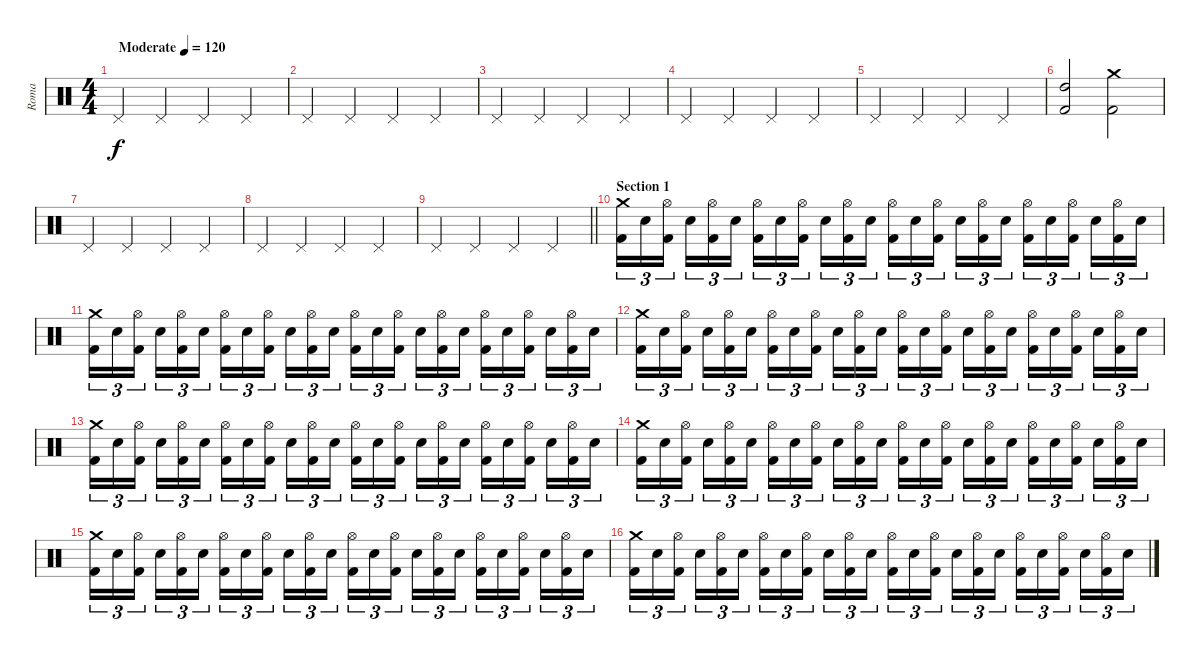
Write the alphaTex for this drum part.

\track ("Roma" "Roma") {instrument percussion}
\staff {score}
\articulation defaults
\ts (4 4)
\tempo (120 "Moderate")
\clef neutral
\ks c "Pedal Hi-Hat (hit)".4{dy f} "Pedal Hi-Hat (hit)".4 "Pedal Hi-Hat (hit)".4 "Pedal Hi-Hat (hit)".4
|
"Pedal Hi-Hat (hit)".4 "Pedal Hi-Hat (hit)".4 "Pedal Hi-Hat (hit)".4 "Pedal Hi-Hat (hit)".4 |
"Pedal Hi-Hat (hit)".4 "Pedal Hi-Hat (hit)".4 "Pedal Hi-Hat (hit)".4 "Pedal Hi-Hat (hit)".4 |
"Pedal Hi-Hat (hit)".4 "Pedal Hi-Hat (hit)".4 "Pedal Hi-Hat (hit)".4 "Pedal Hi-Hat (hit)".4 |
"Pedal Hi-Hat (hit)".4 "Pedal Hi-Hat (hit)".4 "Pedal Hi-Hat (hit)".4 "Pedal Hi-Hat (hit)".4 |
("High Tom (hit)" "Kick (hit) 2").2 ("Crash medium (hit)" "Kick (hit) 2").2 |
"Pedal Hi-Hat (hit)".4 "Pedal Hi-Hat (hit)".4 "Pedal Hi-Hat (hit)".4 "Pedal Hi-Hat (hit)".4 |
"Pedal Hi-Hat (hit)".4 "Pedal Hi-Hat (hit)".4 "Pedal Hi-Hat (hit)".4 "Pedal Hi-Hat (hit)".4 |
\barLineRight lightlight "Pedal Hi-Hat (hit)".4 "Pedal Hi-Hat (hit)".4 "Pedal Hi-Hat (hit)".4 "Pedal Hi-Hat (hit)".4
|
\section ("" "Section 1")
("Crash medium (hit)" "Kick (hit) 2").16{tu (3 2)} "Electric Snare (hit)".16{tu (3 2)} ("Hi-Hat (open)" "Kick (hit) 2").16{tu (3 2) beam splitsecondary} "Electric Snare (hit)".16{tu (3 2)} ("Hi-Hat (open)" "Kick (hit) 2").16{tu (3 2)} "Electric Snare (hit)".16{tu (3 2)} ("Hi-Hat (open)" "Kick (hit) 2").16{tu (3 2)} "Electric Snare (hit)".16{tu (3 2)} ("Hi-Hat (open)" "Kick (hit) 2").16{tu (3 2) beam splitsecondary} "Electric Snare (hit)".16{tu (3 2)} ("Hi-Hat (open)" "Kick (hit) 2").16{tu (3 2)} "Electric Snare (hit)".16{tu (3 2)} ("Hi-Hat (open)" "Kick (hit) 2").16{tu (3 2)} "Electric Snare (hit)".16{tu (3 2)} ("Hi-Hat (open)" "Kick (hit) 2").16{tu (3 2) beam splitsecondary} "Electric Snare (hit)".16{tu (3 2)} ("Hi-Hat (open)" "Kick (hit) 2").16{tu (3 2)} "Electric Snare (hit)".16{tu (3 2)} ("Hi-Hat (open)" "Kick (hit) 2").16{tu (3 2)} "Electric Snare (hit)".16{tu (3 2)} ("Hi-Hat (open)" "Kick (hit) 2").16{tu (3 2) beam splitsecondary} "Electric Snare (hit)".16{tu (3 2)} ("Hi-Hat (open)" "Kick (hit) 2").16{tu (3 2)} "Electric Snare (hit)".16{tu (3 2)} |
("Crash medium (hit)" "Kick (hit) 2").16{tu (3 2)} "Electric Snare (hit)".16{tu (3 2)} ("Hi-Hat (open)" "Kick (hit) 2").16{tu (3 2) beam splitsecondary} "Electric Snare (hit)".16{tu (3 2)} ("Hi-Hat (open)" "Kick (hit) 2").16{tu (3 2)} "Electric Snare (hit)".16{tu (3 2)} ("Hi-Hat (open)" "Kick (hit) 2").16{tu (3 2)} "Electric Snare (hit)".16{tu (3 2)} ("Hi-Hat (open)" "Kick (hit) 2").16{tu (3 2) beam splitsecondary} "Electric Snare (hit)".16{tu (3 2)} ("Hi-Hat (open)" "Kick (hit) 2").16{tu (3 2)} "Electric Snare (hit)".16{tu (3 2)} ("Hi-Hat (open)" "Kick (hit) 2").16{tu (3 2)} "Electric Snare (hit)".16{tu (3 2)} ("Hi-Hat (open)" "Kick (hit) 2").16{tu (3 2) beam splitsecondary} "Electric Snare (hit)".16{tu (3 2)} ("Hi-Hat (open)" "Kick (hit) 2").16{tu (3 2)} "Electric Snare (hit)".16{tu (3 2)} ("Hi-Hat (open)" "Kick (hit) 2").16{tu (3 2)} "Electric Snare (hit)".16{tu (3 2)} ("Hi-Hat (open)" "Kick (hit) 2").16{tu (3 2) beam splitsecondary} "Electric Snare (hit)".16{tu (3 2)} ("Hi-Hat (open)" "Kick (hit) 2").16{tu (3 2)} "Electric Snare (hit)".16{tu (3 2)} |
("Crash medium (hit)" "Kick (hit) 2").16{tu (3 2)} "Electric Snare (hit)".16{tu (3 2)} ("Hi-Hat (open)" "Kick (hit) 2").16{tu (3 2) beam splitsecondary} "Electric Snare (hit)".16{tu (3 2)} ("Hi-Hat (open)" "Kick (hit) 2").16{tu (3 2)} "Electric Snare (hit)".16{tu (3 2)} ("Hi-Hat (open)" "Kick (hit) 2").16{tu (3 2)} "Electric Snare (hit)".16{tu (3 2)} ("Hi-Hat (open)" "Kick (hit) 2").16{tu (3 2) beam splitsecondary} "Electric Snare (hit)".16{tu (3 2)} ("Hi-Hat (open)" "Kick (hit) 2").16{tu (3 2)} "Electric Snare (hit)".16{tu (3 2)} ("Hi-Hat (open)" "Kick (hit) 2").16{tu (3 2)} "Electric Snare (hit)".16{tu (3 2)} ("Hi-Hat (open)" "Kick (hit) 2").16{tu (3 2) beam splitsecondary} "Electric Snare (hit)".16{tu (3 2)} ("Hi-Hat (open)" "Kick (hit) 2").16{tu (3 2)} "Electric Snare (hit)".16{tu (3 2)} ("Hi-Hat (open)" "Kick (hit) 2").16{tu (3 2)} "Electric Snare (hit)".16{tu (3 2)} ("Hi-Hat (open)" "Kick (hit) 2").16{tu (3 2) beam splitsecondary} "Electric Snare (hit)".16{tu (3 2)} ("Hi-Hat (open)" "Kick (hit) 2").16{tu (3 2)} "Electric Snare (hit)".16{tu (3 2)} |
("Crash medium (hit)" "Kick (hit) 2").16{tu (3 2)} "Electric Snare (hit)".16{tu (3 2)} ("Hi-Hat (open)" "Kick (hit) 2").16{tu (3 2) beam splitsecondary} "Electric Snare (hit)".16{tu (3 2)} ("Hi-Hat (open)" "Kick (hit) 2").16{tu (3 2)} "Electric Snare (hit)".16{tu (3 2)} ("Hi-Hat (open)" "Kick (hit) 2").16{tu (3 2)} "Electric Snare (hit)".16{tu (3 2)} ("Hi-Hat (open)" "Kick (hit) 2").16{tu (3 2) beam splitsecondary} "Electric Snare (hit)".16{tu (3 2)} ("Hi-Hat (open)" "Kick (hit) 2").16{tu (3 2)} "Electric Snare (hit)".16{tu (3 2)} ("Hi-Hat (open)" "Kick (hit) 2").16{tu (3 2)} "Electric Snare (hit)".16{tu (3 2)} ("Hi-Hat (open)" "Kick (hit) 2").16{tu (3 2) beam splitsecondary} "Electric Snare (hit)".16{tu (3 2)} ("Hi-Hat (open)" "Kick (hit) 2").16{tu (3 2)} "Electric Snare (hit)".16{tu (3 2)} ("Hi-Hat (open)" "Kick (hit) 2").16{tu (3 2)} "Electric Snare (hit)".16{tu (3 2)} ("Hi-Hat (open)" "Kick (hit) 2").16{tu (3 2) beam splitsecondary} "Electric Snare (hit)".16{tu (3 2)} ("Hi-Hat (open)" "Kick (hit) 2").16{tu (3 2)} "Electric Snare (hit)".16{tu (3 2)} |
("Crash medium (hit)" "Kick (hit) 2").16{tu (3 2)} "Electric Snare (hit)".16{tu (3 2)} ("Hi-Hat (open)" "Kick (hit) 2").16{tu (3 2) beam splitsecondary} "Electric Snare (hit)".16{tu (3 2)} ("Hi-Hat (open)" "Kick (hit) 2").16{tu (3 2)} "Electric Snare (hit)".16{tu (3 2)} ("Hi-Hat (open)" "Kick (hit) 2").16{tu (3 2)} "Electric Snare (hit)".16{tu (3 2)} ("Hi-Hat (open)" "Kick (hit) 2").16{tu (3 2) beam splitsecondary} "Electric Snare (hit)".16{tu (3 2)} ("Hi-Hat (open)" "Kick (hit) 2").16{tu (3 2)} "Electric Snare (hit)".16{tu (3 2)} ("Hi-Hat (open)" "Kick (hit) 2").16{tu (3 2)} "Electric Snare (hit)".16{tu (3 2)} ("Hi-Hat (open)" "Kick (hit) 2").16{tu (3 2) beam splitsecondary} "Electric Snare (hit)".16{tu (3 2)} ("Hi-Hat (open)" "Kick (hit) 2").16{tu (3 2)} "Electric Snare (hit)".16{tu (3 2)} ("Hi-Hat (open)" "Kick (hit) 2").16{tu (3 2)} "Electric Snare (hit)".16{tu (3 2)} ("Hi-Hat (open)" "Kick (hit) 2").16{tu (3 2) beam splitsecondary} "Electric Snare (hit)".16{tu (3 2)} ("Hi-Hat (open)" "Kick (hit) 2").16{tu (3 2)} "Electric Snare (hit)".16{tu (3 2)} |
("Crash medium (hit)" "Kick (hit) 2").16{tu (3 2)} "Electric Snare (hit)".16{tu (3 2)} ("Hi-Hat (open)" "Kick (hit) 2").16{tu (3 2) beam splitsecondary} "Electric Snare (hit)".16{tu (3 2)} ("Hi-Hat (open)" "Kick (hit) 2").16{tu (3 2)} "Electric Snare (hit)".16{tu (3 2)} ("Hi-Hat (open)" "Kick (hit) 2").16{tu (3 2)} "Electric Snare (hit)".16{tu (3 2)} ("Hi-Hat (open)" "Kick (hit) 2").16{tu (3 2) beam splitsecondary} "Electric Snare (hit)".16{tu (3 2)} ("Hi-Hat (open)" "Kick (hit) 2").16{tu (3 2)} "Electric Snare (hit)".16{tu (3 2)} ("Hi-Hat (open)" "Kick (hit) 2").16{tu (3 2)} "Electric Snare (hit)".16{tu (3 2)} ("Hi-Hat (open)" "Kick (hit) 2").16{tu (3 2) beam splitsecondary} "Electric Snare (hit)".16{tu (3 2)} ("Hi-Hat (open)" "Kick (hit) 2").16{tu (3 2)} "Electric Snare (hit)".16{tu (3 2)} ("Hi-Hat (open)" "Kick (hit) 2").16{tu (3 2)} "Electric Snare (hit)".16{tu (3 2)} ("Hi-Hat (open)" "Kick (hit) 2").16{tu (3 2) beam splitsecondary} "Electric Snare (hit)".16{tu (3 2)} ("Hi-Hat (open)" "Kick (hit) 2").16{tu (3 2)} "Electric Snare (hit)".16{tu (3 2)} |
("Crash medium (hit)" "Kick (hit) 2").16{tu (3 2)} "Electric Snare (hit)".16{tu (3 2)} ("Hi-Hat (open)" "Kick (hit) 2").16{tu (3 2) beam splitsecondary} "Electric Snare (hit)".16{tu (3 2)} ("Hi-Hat (open)" "Kick (hit) 2").16{tu (3 2)} "Electric Snare (hit)".16{tu (3 2)} ("Hi-Hat (open)" "Kick (hit) 2").16{tu (3 2)} "Electric Snare (hit)".16{tu (3 2)} ("Hi-Hat (open)" "Kick (hit) 2").16{tu (3 2) beam splitsecondary} "Electric Snare (hit)".16{tu (3 2)} ("Hi-Hat (open)" "Kick (hit) 2").16{tu (3 2)} "Electric Snare (hit)".16{tu (3 2)} ("Hi-Hat (open)" "Kick (hit) 2").16{tu (3 2)} "Electric Snare (hit)".16{tu (3 2)} ("Hi-Hat (open)" "Kick (hit) 2").16{tu (3 2) beam splitsecondary} "Electric Snare (hit)".16{tu (3 2)} ("Hi-Hat (open)" "Kick (hit) 2").16{tu (3 2)} "Electric Snare (hit)".16{tu (3 2)} ("Hi-Hat (open)" "Kick (hit) 2").16{tu (3 2)} "Electric Snare (hit)".16{tu (3 2)} ("Hi-Hat (open)" "Kick (hit) 2").16{tu (3 2) beam splitsecondary} "Electric Snare (hit)".16{tu (3 2)} ("Hi-Hat (open)" "Kick (hit) 2").16{tu (3 2)} "Electric Snare (hit)".16{tu (3 2)}
